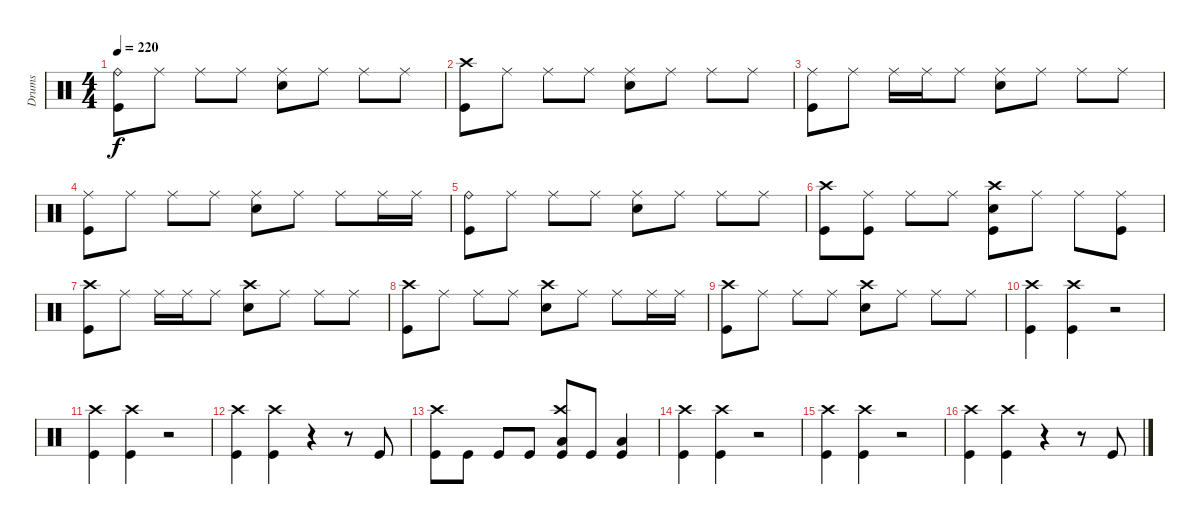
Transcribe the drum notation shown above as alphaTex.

\track ("Drums" "Drums") {instrument percussion}
\staff {score}
\articulation defaults
\ts (4 4)
\tempo 220
\clef neutral
\ks c
("Ride (bell)" "Kick (hit)").8{dy f} "Ride (middle)".8 "Ride (middle)".8 "Ride (middle)".8 ("Ride (middle)" "Snare (hit) 2").8 "Ride (middle)".8 "Ride (middle)".8 "Ride (middle)".8 |
("Crash high (hit)" "Kick (hit)").8 "Ride (middle)".8 "Ride (middle)".8 "Ride (middle)".8 ("Ride (middle)" "Snare (hit) 2").8 "Ride (middle)".8 "Ride (middle)".8 "Ride (middle)".8 |
("Ride (middle)" "Kick (hit)").8 "Ride (middle)".8 "Ride (middle)".16 "Ride (middle)".16 "Ride (middle)".8 ("Ride (middle)" "Snare (hit) 2").8 "Ride (middle)".8 "Ride (middle)".8 "Ride (middle)".8 |
("Ride (middle)" "Kick (hit)").8 "Ride (middle)".8 "Ride (middle)".8 "Ride (middle)".8 ("Ride (middle)" "Snare (hit) 2").8 "Ride (middle)".8 "Ride (middle)".8 "Ride (middle)".16 "Ride (middle)".16 |
("Ride (bell)" "Kick (hit)").8 "Ride (middle)".8 "Ride (middle)".8 "Ride (middle)".8 ("Ride (middle)" "Snare (hit) 2").8 "Ride (middle)".8 "Ride (middle)".8 "Ride (middle)".8 |
("Crash high (hit)" "Kick (hit)").8 ("Ride (middle)" "Kick (hit)").8 "Ride (middle)".8 "Ride (middle)".8 ("Crash high (hit)" "Snare (hit) 2" "Kick (hit)").8 "Ride (middle)".8 "Ride (middle)".8 ("Ride (middle)" "Kick (hit)").8 |
("Crash high (hit)" "Kick (hit)").8 "Ride (middle)".8 "Ride (middle)".16 "Ride (middle)".16 "Ride (middle)".8 ("Crash high (hit)" "Snare (hit) 2").8 "Ride (middle)".8 "Ride (middle)".8 "Ride (middle)".8 |
("Crash high (hit)" "Kick (hit)").8 "Ride (middle)".8 "Ride (middle)".8 "Ride (middle)".8 ("Crash high (hit)" "Snare (hit) 2").8 "Ride (middle)".8 "Ride (middle)".8 "Ride (middle)".16 "Ride (middle)".16 |
("Crash high (hit)" "Kick (hit)").8 "Ride (middle)".8 "Ride (middle)".8 "Ride (middle)".8 ("Crash high (hit)" "Snare (hit) 2").8 "Ride (middle)".8 "Ride (middle)".8 "Ride (middle)".8 |
("Crash high (hit)" "Kick (hit)").4 ("Crash high (hit)" "Kick (hit)").4 r.2 |
("Crash high (hit)" "Kick (hit)").4 ("Crash high (hit)" "Kick (hit)").4 r.2 |
("Crash high (hit)" "Kick (hit)").4 ("Crash high (hit)" "Kick (hit)").4 r.4 r.8 "Kick (hit)".8 |
("Crash high (hit)" "Kick (hit)").8 "Kick (hit)".8 "Kick (hit)".8 "Kick (hit)".8 ("Crash high (hit)" "Low Floor Tom (hit)" "Kick (hit)").8 "Kick (hit)".8 ("Low Floor Tom (hit)" "Kick (hit)").4 |
("Crash high (hit)" "Kick (hit)").4 ("Crash high (hit)" "Kick (hit)").4 r.2 |
("Crash high (hit)" "Kick (hit)").4 ("Crash high (hit)" "Kick (hit)").4 r.2 |
("Crash high (hit)" "Kick (hit)").4 ("Crash high (hit)" "Kick (hit)").4 r.4 r.8 "Kick (hit)".8
